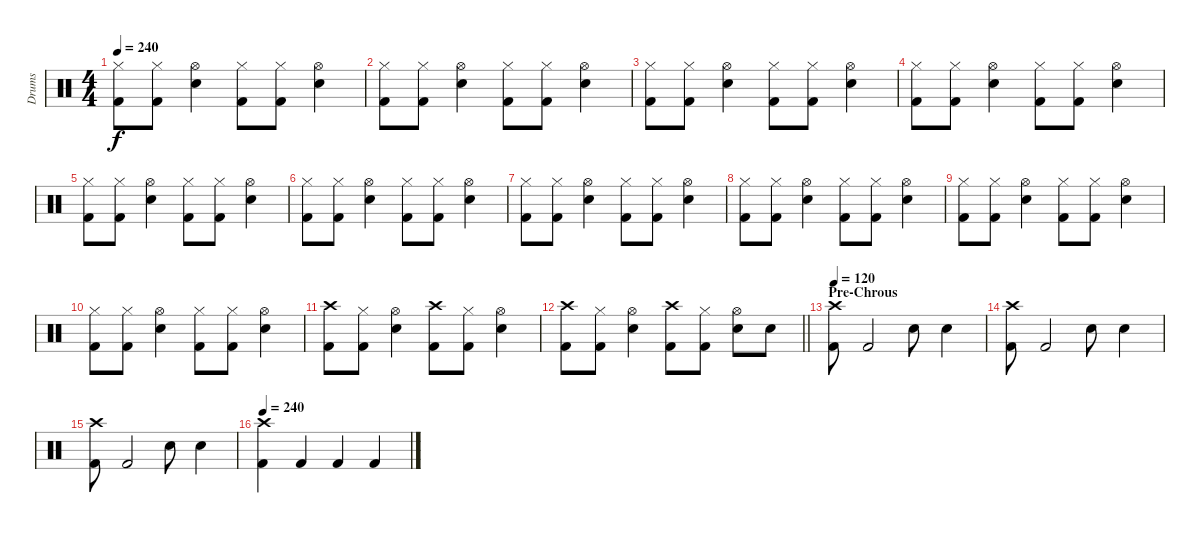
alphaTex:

\track ("Drums" "Drums") {instrument percussion}
\staff {score}
\articulation defaults
\ts (4 4)
\tempo 240
\clef neutral
\ks c
("Hi-Hat (closed)" "Kick (hit) 2").8{dy f} ("Hi-Hat (closed)" "Kick (hit) 2").8 ("Hi-Hat (open)" "Snare (hit) 2").4 ("Hi-Hat (closed)" "Kick (hit) 2").8 ("Hi-Hat (closed)" "Kick (hit) 2").8 ("Hi-Hat (open)" "Snare (hit) 2").4 |
("Hi-Hat (closed)" "Kick (hit) 2").8 ("Hi-Hat (closed)" "Kick (hit) 2").8 ("Hi-Hat (open)" "Snare (hit) 2").4 ("Hi-Hat (closed)" "Kick (hit) 2").8 ("Hi-Hat (closed)" "Kick (hit) 2").8 ("Hi-Hat (open)" "Snare (hit) 2").4 |
("Hi-Hat (closed)" "Kick (hit) 2").8 ("Hi-Hat (closed)" "Kick (hit) 2").8 ("Hi-Hat (open)" "Snare (hit) 2").4 ("Hi-Hat (closed)" "Kick (hit) 2").8 ("Hi-Hat (closed)" "Kick (hit) 2").8 ("Hi-Hat (open)" "Snare (hit) 2").4 |
("Hi-Hat (closed)" "Kick (hit) 2").8 ("Hi-Hat (closed)" "Kick (hit) 2").8 ("Hi-Hat (open)" "Snare (hit) 2").4 ("Hi-Hat (closed)" "Kick (hit) 2").8 ("Hi-Hat (closed)" "Kick (hit) 2").8 ("Hi-Hat (open)" "Snare (hit) 2").4 |
("Hi-Hat (closed)" "Kick (hit) 2").8 ("Hi-Hat (closed)" "Kick (hit) 2").8 ("Hi-Hat (open)" "Snare (hit) 2").4 ("Hi-Hat (closed)" "Kick (hit) 2").8 ("Hi-Hat (closed)" "Kick (hit) 2").8 ("Hi-Hat (open)" "Snare (hit) 2").4 |
("Hi-Hat (closed)" "Kick (hit) 2").8 ("Hi-Hat (closed)" "Kick (hit) 2").8 ("Hi-Hat (open)" "Snare (hit) 2").4 ("Hi-Hat (closed)" "Kick (hit) 2").8 ("Hi-Hat (closed)" "Kick (hit) 2").8 ("Hi-Hat (open)" "Snare (hit) 2").4 |
("Hi-Hat (closed)" "Kick (hit) 2").8 ("Hi-Hat (closed)" "Kick (hit) 2").8 ("Hi-Hat (open)" "Snare (hit) 2").4 ("Hi-Hat (closed)" "Kick (hit) 2").8 ("Hi-Hat (closed)" "Kick (hit) 2").8 ("Hi-Hat (open)" "Snare (hit) 2").4 |
("Hi-Hat (closed)" "Kick (hit) 2").8 ("Hi-Hat (closed)" "Kick (hit) 2").8 ("Hi-Hat (open)" "Snare (hit) 2").4 ("Hi-Hat (closed)" "Kick (hit) 2").8 ("Hi-Hat (closed)" "Kick (hit) 2").8 ("Hi-Hat (open)" "Snare (hit) 2").4 |
("Hi-Hat (closed)" "Kick (hit) 2").8 ("Hi-Hat (closed)" "Kick (hit) 2").8 ("Hi-Hat (open)" "Snare (hit) 2").4 ("Hi-Hat (closed)" "Kick (hit) 2").8 ("Hi-Hat (closed)" "Kick (hit) 2").8 ("Hi-Hat (open)" "Snare (hit) 2").4 |
("Hi-Hat (closed)" "Kick (hit) 2").8 ("Hi-Hat (closed)" "Kick (hit) 2").8 ("Hi-Hat (open)" "Snare (hit) 2").4 ("Hi-Hat (closed)" "Kick (hit) 2").8 ("Hi-Hat (closed)" "Kick (hit) 2").8 ("Hi-Hat (open)" "Snare (hit) 2").4 |
("Crash high (hit)" "Kick (hit) 2").8 ("Hi-Hat (closed)" "Kick (hit) 2").8 ("Hi-Hat (open)" "Snare (hit) 2").4 ("Crash high (hit)" "Kick (hit) 2").8 ("Hi-Hat (closed)" "Kick (hit) 2").8 ("Hi-Hat (open)" "Snare (hit) 2").4 |
\barLineRight lightlight
("Crash high (hit)" "Kick (hit) 2").8 ("Hi-Hat (closed)" "Kick (hit) 2").8 ("Hi-Hat (open)" "Snare (hit) 2").4 ("Crash high (hit)" "Kick (hit) 2").8 ("Hi-Hat (closed)" "Kick (hit) 2").8 ("Hi-Hat (open)" "Snare (hit) 2").8 "Snare (hit) 2".8 |
\section ("" "Pre-Chrous")
\tempo 120
("Crash high (hit)" "Kick (hit) 2").8 "Kick (hit) 2".2 "Snare (hit) 2".8 "Snare (hit) 2".4 |
("Crash high (hit)" "Kick (hit) 2").8 "Kick (hit) 2".2 "Snare (hit) 2".8 "Snare (hit) 2".4 |
("Crash high (hit)" "Kick (hit) 2").8 "Kick (hit) 2".2 "Snare (hit) 2".8 "Snare (hit) 2".4 |
\tempo 240
("Crash high (hit)" "Kick (hit) 2").4 "Kick (hit) 2".4 "Kick (hit) 2".4 "Kick (hit) 2".4
